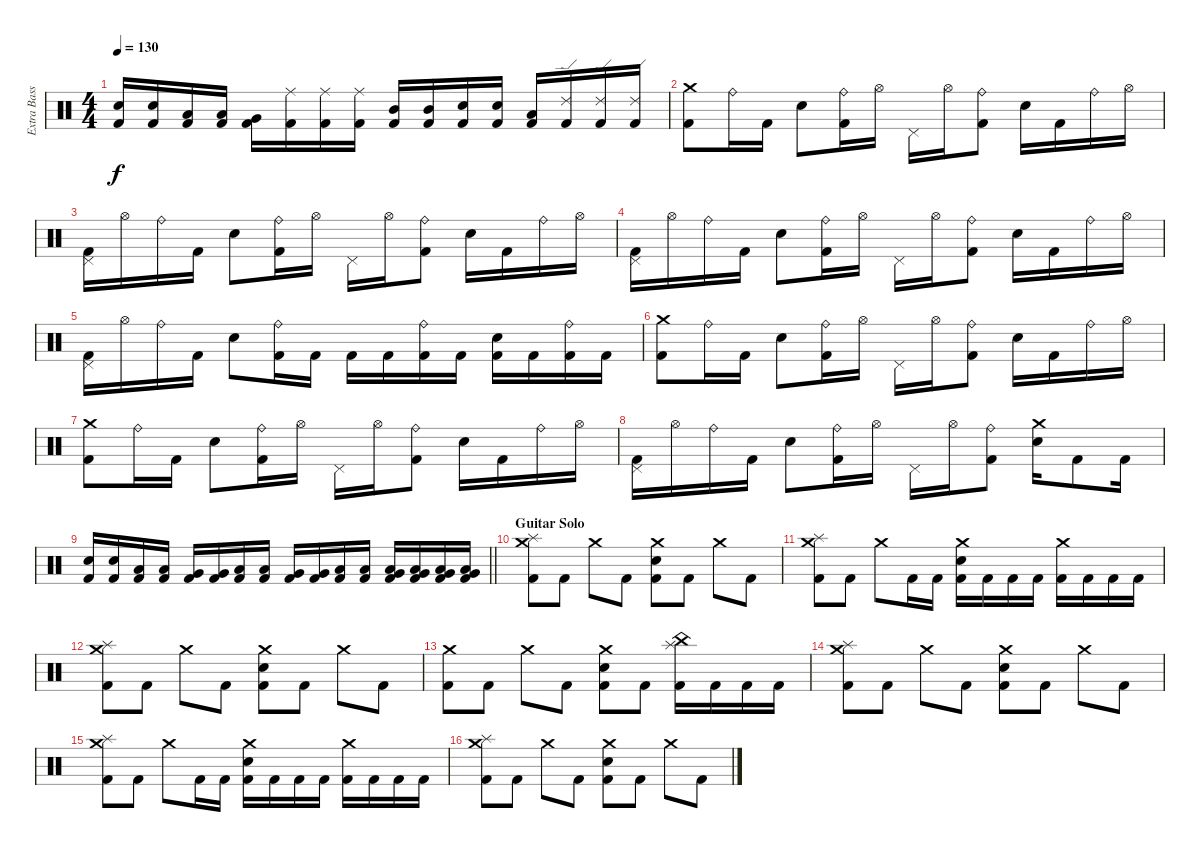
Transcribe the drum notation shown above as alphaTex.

\track ("Extra BassDrum" "Extra Bass") {instrument percussion}
\staff {score}
\articulation defaults
\ts (4 4)
\tempo 130
\clef neutral
\ks c
("Snare (hit) 2" "Kick (hit) 2").16{dy f} ("Snare (hit) 2" "Kick (hit) 2").16 ("Low Tom (hit)" "Kick (hit) 2").16 ("Low Tom (hit)" "Kick (hit) 2").16 ("Very Low Tom (hit)" "Kick (hit) 2").16 ("Ride (middle)" "Kick (hit) 2").16 ("Ride (middle)" "Kick (hit) 2").16 ("Ride (middle)" "Kick (hit) 2").16 ("Mid Tom (hit)" "Kick (hit) 2").16 ("Mid Tom (hit)" "Kick (hit) 2").16 ("Snare (hit) 2" "Kick (hit) 2").16 ("Snare (hit) 2" "Kick (hit) 2").16 ("Low Tom (hit)" "Kick (hit) 2").16 ("Ride (edge) 2" "Kick (hit) 2").16 ("Ride (edge) 2" "Kick (hit) 2").16 ("Ride (edge) 2" "Kick (hit) 2").16 |
("Crash medium (hit)" "Kick (hit) 2").8 "Ride (bell)".16 "Kick (hit) 2".16 "Snare (hit) 2".8 ("Ride (bell)" "Kick (hit) 2").16 "Hi-Hat (open)".16 "Pedal Hi-Hat (hit)".16 "Hi-Hat (open)".16 ("Ride (bell)" "Kick (hit) 2").8 "Snare (hit) 2".16 "Kick (hit) 2".16 "Ride (bell)".16 "Hi-Hat (open)".16 |
("Pedal Hi-Hat (hit)" "Kick (hit) 2").16 "Hi-Hat (open)".16 "Ride (bell)".16 "Kick (hit) 2".16 "Snare (hit) 2".8 ("Ride (bell)" "Kick (hit) 2").16 "Hi-Hat (open)".16 "Pedal Hi-Hat (hit)".16 "Hi-Hat (open)".16 ("Ride (bell)" "Kick (hit) 2").8 "Snare (hit) 2".16 "Kick (hit) 2".16 "Ride (bell)".16 "Hi-Hat (open)".16 |
("Pedal Hi-Hat (hit)" "Kick (hit) 2").16 "Hi-Hat (open)".16 "Ride (bell)".16 "Kick (hit) 2".16 "Snare (hit) 2".8 ("Ride (bell)" "Kick (hit) 2").16 "Hi-Hat (open)".16 "Pedal Hi-Hat (hit)".16 "Hi-Hat (open)".16 ("Ride (bell)" "Kick (hit) 2").8 "Snare (hit) 2".16 "Kick (hit) 2".16 "Ride (bell)".16 "Hi-Hat (open)".16 |
("Pedal Hi-Hat (hit)" "Kick (hit) 2").16 "Hi-Hat (open)".16 "Ride (bell)".16 "Kick (hit) 2".16 "Snare (hit) 2".8 ("Ride (bell)" "Kick (hit) 2").16 "Kick (hit) 2".16 "Kick (hit) 2".16 "Kick (hit) 2".16 ("Ride (bell)" "Kick (hit) 2").16 "Kick (hit) 2".16 ("Snare (hit) 2" "Kick (hit) 2").16 "Kick (hit) 2".16 ("Ride (bell)" "Kick (hit) 2").16 "Kick (hit) 2".16 |
("Crash medium (hit)" "Kick (hit) 2").8 "Ride (bell)".16 "Kick (hit) 2".16 "Snare (hit) 2".8 ("Ride (bell)" "Kick (hit) 2").16 "Hi-Hat (open)".16 "Pedal Hi-Hat (hit)".16 "Hi-Hat (open)".16 ("Ride (bell)" "Kick (hit) 2").8 "Snare (hit) 2".16 "Kick (hit) 2".16 "Ride (bell)".16 "Hi-Hat (open)".16 |
("Crash medium (hit)" "Kick (hit) 2").8 "Ride (bell)".16 "Kick (hit) 2".16 "Snare (hit) 2".8 ("Ride (bell)" "Kick (hit) 2").16 "Hi-Hat (open)".16 "Pedal Hi-Hat (hit)".16 "Hi-Hat (open)".16 ("Ride (bell)" "Kick (hit) 2").8 "Snare (hit) 2".16 "Kick (hit) 2".16 "Ride (bell)".16 "Hi-Hat (open)".16 |
("Pedal Hi-Hat (hit)" "Kick (hit) 2").16 "Hi-Hat (open)".16 "Ride (bell)".16 "Kick (hit) 2".16 "Snare (hit) 2".8 ("Ride (bell)" "Kick (hit) 2").16 "Hi-Hat (open)".16 "Pedal Hi-Hat (hit)".16 "Hi-Hat (open)".16 ("Ride (bell)" "Kick (hit) 2").8 ("Crash medium (hit)" "Snare (hit) 2").16 "Kick (hit) 2".8 "Kick (hit) 2".16 |
\barLineRight lightlight
("Snare (hit) 2" "Kick (hit) 2").16 ("Snare (hit) 2" "Kick (hit) 2").16 ("Low Tom (hit)" "Kick (hit) 2").16 ("Low Tom (hit)" "Kick (hit) 2").16 ("Very Low Tom (hit)" "Kick (hit) 2").16 ("Very Low Tom (hit)" "Kick (hit) 2").16 ("Low Floor Tom (hit)" "Kick (hit) 2").16 ("Low Floor Tom (hit)" "Kick (hit) 2").16 ("Very Low Tom (hit)" "Kick (hit) 2").16 ("Very Low Tom (hit)" "Kick (hit) 2").16 ("Low Floor Tom (hit)" "Kick (hit) 2").16 ("Low Floor Tom (hit)" "Kick (hit) 2").16 ("Very Low Tom (hit)" "Low Floor Tom (hit)" "Kick (hit) 2").16 ("Very Low Tom (hit)" "Low Floor Tom (hit)" "Kick (hit) 2").16 ("Very Low Tom (hit)" "Low Floor Tom (hit)" "Kick (hit) 2").16 ("Very Low Tom (hit)" "Low Floor Tom (hit)" "Kick (hit) 2").16 |
\section ("" "Guitar Solo")
("Crash medium (hit)" "Splash (hit)" "Kick (hit) 2").8 "Kick (hit) 2".8 "Crash medium (hit)".8 "Kick (hit) 2".8 ("Crash medium (hit)" "Snare (hit) 2" "Kick (hit) 2").8 "Kick (hit) 2".8 "Crash medium (hit)".8 "Kick (hit) 2".8 |
("Crash medium (hit)" "Splash (hit)" "Kick (hit) 2").8 "Kick (hit) 2".8 "Crash medium (hit)".8 "Kick (hit) 2".16 "Kick (hit) 2".16 ("Crash medium (hit)" "Snare (hit) 2" "Kick (hit) 2").16 "Kick (hit) 2".16 "Kick (hit) 2".16 "Kick (hit) 2".16 ("Crash medium (hit)" "Kick (hit) 2").16 "Kick (hit) 2".16 "Kick (hit) 2".16 "Kick (hit) 2".16 |
("Crash medium (hit)" "Splash (hit)" "Kick (hit) 2").8 "Kick (hit) 2".8 "Crash medium (hit)".8 "Kick (hit) 2".8 ("Crash medium (hit)" "Snare (hit) 2" "Kick (hit) 2").8 "Kick (hit) 2".8 "Crash medium (hit)".8 "Kick (hit) 2".8 |
("Crash medium (hit)" "Kick (hit) 2").8 "Kick (hit) 2".8 "Crash medium (hit)".8 "Kick (hit) 2".8 ("Crash medium (hit)" "Snare (hit) 2" "Kick (hit) 2").8 "Kick (hit) 2".8 ("China (hit)" "Splash (hit)" "Kick (hit) 2").16 "Kick (hit) 2".16 "Kick (hit) 2".16 "Kick (hit) 2".16 |
("Crash medium (hit)" "Splash (hit)" "Kick (hit) 2").8 "Kick (hit) 2".8 "Crash medium (hit)".8 "Kick (hit) 2".8 ("Crash medium (hit)" "Snare (hit) 2" "Kick (hit) 2").8 "Kick (hit) 2".8 "Crash medium (hit)".8 "Kick (hit) 2".8 |
("Crash medium (hit)" "Splash (hit)" "Kick (hit) 2").8 "Kick (hit) 2".8 "Crash medium (hit)".8 "Kick (hit) 2".16 "Kick (hit) 2".16 ("Crash medium (hit)" "Snare (hit) 2" "Kick (hit) 2").16 "Kick (hit) 2".16 "Kick (hit) 2".16 "Kick (hit) 2".16 ("Crash medium (hit)" "Kick (hit) 2").16 "Kick (hit) 2".16 "Kick (hit) 2".16 "Kick (hit) 2".16 |
("Crash medium (hit)" "Splash (hit)" "Kick (hit) 2").8 "Kick (hit) 2".8 "Crash medium (hit)".8 "Kick (hit) 2".8 ("Crash medium (hit)" "Snare (hit) 2" "Kick (hit) 2").8 "Kick (hit) 2".8 "Crash medium (hit)".8 "Kick (hit) 2".8
